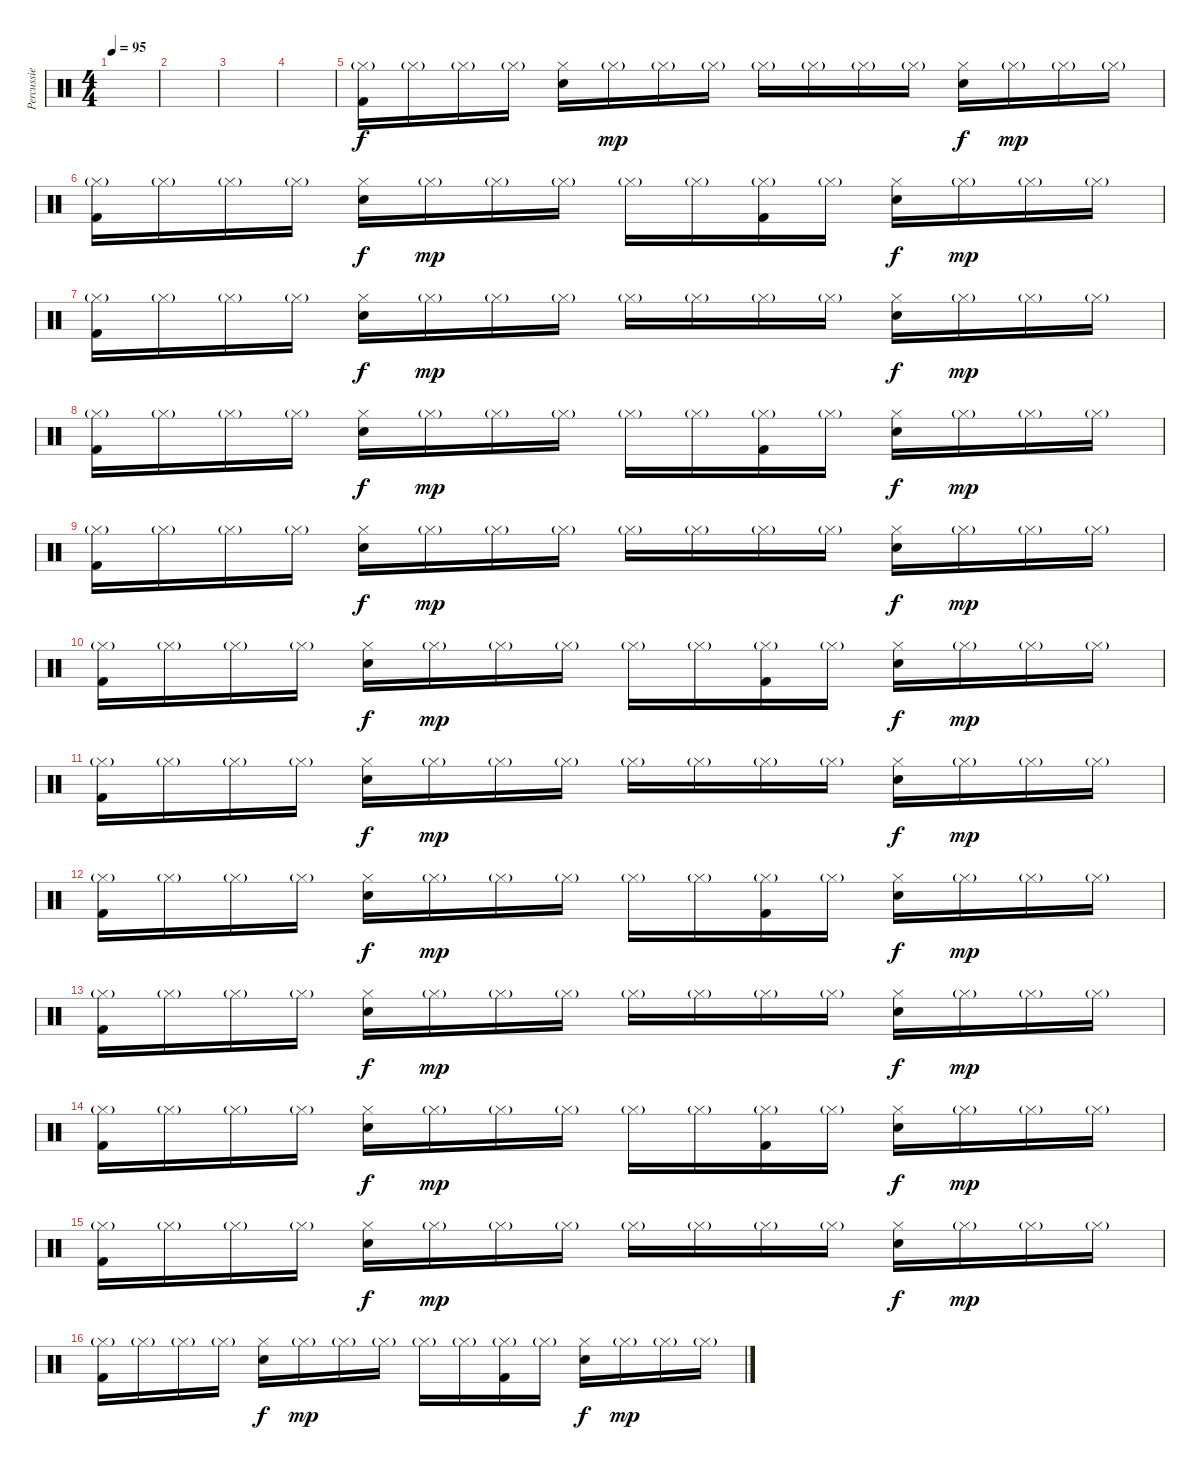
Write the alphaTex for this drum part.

\track ("Percussie" "Percussie") {instrument percussion}
\staff {score}
\articulation defaults
\ts (4 4)
\tempo 95
\clef neutral
\ks c
|
|
|
|
("Hi-Hat (closed)"{g} "Kick (hit) 2").16 "Hi-Hat (closed)"{g}.16 "Hi-Hat (closed)"{g}.16 "Hi-Hat (closed)"{g}.16 ("Hi-Hat (closed)" "Snare (hit) 2").16{dy f} "Hi-Hat (closed)"{g}.16{dy mp} "Hi-Hat (closed)"{g}.16 "Hi-Hat (closed)"{g}.16 "Hi-Hat (closed)"{g}.16 "Hi-Hat (closed)"{g}.16 "Hi-Hat (closed)"{g}.16 "Hi-Hat (closed)"{g}.16 ("Hi-Hat (closed)" "Snare (hit) 2").16{dy f} "Hi-Hat (closed)"{g}.16{dy mp} "Hi-Hat (closed)"{g}.16 "Hi-Hat (closed)"{g}.16 |
("Hi-Hat (closed)"{g} "Kick (hit) 2").16 "Hi-Hat (closed)"{g}.16 "Hi-Hat (closed)"{g}.16 "Hi-Hat (closed)"{g}.16 ("Hi-Hat (closed)" "Snare (hit) 2").16{dy f} "Hi-Hat (closed)"{g}.16{dy mp} "Hi-Hat (closed)"{g}.16 "Hi-Hat (closed)"{g}.16 "Hi-Hat (closed)"{g}.16 "Hi-Hat (closed)"{g}.16 ("Hi-Hat (closed)"{g} "Kick (hit) 2").16 "Hi-Hat (closed)"{g}.16 ("Hi-Hat (closed)" "Snare (hit) 2").16{dy f} "Hi-Hat (closed)"{g}.16{dy mp} "Hi-Hat (closed)"{g}.16 "Hi-Hat (closed)"{g}.16 |
("Hi-Hat (closed)"{g} "Kick (hit) 2").16 "Hi-Hat (closed)"{g}.16 "Hi-Hat (closed)"{g}.16 "Hi-Hat (closed)"{g}.16 ("Hi-Hat (closed)" "Snare (hit) 2").16{dy f} "Hi-Hat (closed)"{g}.16{dy mp} "Hi-Hat (closed)"{g}.16 "Hi-Hat (closed)"{g}.16 "Hi-Hat (closed)"{g}.16 "Hi-Hat (closed)"{g}.16 "Hi-Hat (closed)"{g}.16 "Hi-Hat (closed)"{g}.16 ("Hi-Hat (closed)" "Snare (hit) 2").16{dy f} "Hi-Hat (closed)"{g}.16{dy mp} "Hi-Hat (closed)"{g}.16 "Hi-Hat (closed)"{g}.16 |
("Hi-Hat (closed)"{g} "Kick (hit) 2").16 "Hi-Hat (closed)"{g}.16 "Hi-Hat (closed)"{g}.16 "Hi-Hat (closed)"{g}.16 ("Hi-Hat (closed)" "Snare (hit) 2").16{dy f} "Hi-Hat (closed)"{g}.16{dy mp} "Hi-Hat (closed)"{g}.16 "Hi-Hat (closed)"{g}.16 "Hi-Hat (closed)"{g}.16 "Hi-Hat (closed)"{g}.16 ("Hi-Hat (closed)"{g} "Kick (hit) 2").16 "Hi-Hat (closed)"{g}.16 ("Hi-Hat (closed)" "Snare (hit) 2").16{dy f} "Hi-Hat (closed)"{g}.16{dy mp} "Hi-Hat (closed)"{g}.16 "Hi-Hat (closed)"{g}.16 |
("Hi-Hat (closed)"{g} "Kick (hit) 2").16 "Hi-Hat (closed)"{g}.16 "Hi-Hat (closed)"{g}.16 "Hi-Hat (closed)"{g}.16 ("Hi-Hat (closed)" "Snare (hit) 2").16{dy f} "Hi-Hat (closed)"{g}.16{dy mp} "Hi-Hat (closed)"{g}.16 "Hi-Hat (closed)"{g}.16 "Hi-Hat (closed)"{g}.16 "Hi-Hat (closed)"{g}.16 "Hi-Hat (closed)"{g}.16 "Hi-Hat (closed)"{g}.16 ("Hi-Hat (closed)" "Snare (hit) 2").16{dy f} "Hi-Hat (closed)"{g}.16{dy mp} "Hi-Hat (closed)"{g}.16 "Hi-Hat (closed)"{g}.16 |
("Hi-Hat (closed)"{g} "Kick (hit) 2").16 "Hi-Hat (closed)"{g}.16 "Hi-Hat (closed)"{g}.16 "Hi-Hat (closed)"{g}.16 ("Hi-Hat (closed)" "Snare (hit) 2").16{dy f} "Hi-Hat (closed)"{g}.16{dy mp} "Hi-Hat (closed)"{g}.16 "Hi-Hat (closed)"{g}.16 "Hi-Hat (closed)"{g}.16 "Hi-Hat (closed)"{g}.16 ("Hi-Hat (closed)"{g} "Kick (hit) 2").16 "Hi-Hat (closed)"{g}.16 ("Hi-Hat (closed)" "Snare (hit) 2").16{dy f} "Hi-Hat (closed)"{g}.16{dy mp} "Hi-Hat (closed)"{g}.16 "Hi-Hat (closed)"{g}.16 |
("Hi-Hat (closed)"{g} "Kick (hit) 2").16 "Hi-Hat (closed)"{g}.16 "Hi-Hat (closed)"{g}.16 "Hi-Hat (closed)"{g}.16 ("Hi-Hat (closed)" "Snare (hit) 2").16{dy f} "Hi-Hat (closed)"{g}.16{dy mp} "Hi-Hat (closed)"{g}.16 "Hi-Hat (closed)"{g}.16 "Hi-Hat (closed)"{g}.16 "Hi-Hat (closed)"{g}.16 "Hi-Hat (closed)"{g}.16 "Hi-Hat (closed)"{g}.16 ("Hi-Hat (closed)" "Snare (hit) 2").16{dy f} "Hi-Hat (closed)"{g}.16{dy mp} "Hi-Hat (closed)"{g}.16 "Hi-Hat (closed)"{g}.16 |
("Hi-Hat (closed)"{g} "Kick (hit) 2").16 "Hi-Hat (closed)"{g}.16 "Hi-Hat (closed)"{g}.16 "Hi-Hat (closed)"{g}.16 ("Hi-Hat (closed)" "Snare (hit) 2").16{dy f} "Hi-Hat (closed)"{g}.16{dy mp} "Hi-Hat (closed)"{g}.16 "Hi-Hat (closed)"{g}.16 "Hi-Hat (closed)"{g}.16 "Hi-Hat (closed)"{g}.16 ("Hi-Hat (closed)"{g} "Kick (hit) 2").16 "Hi-Hat (closed)"{g}.16 ("Hi-Hat (closed)" "Snare (hit) 2").16{dy f} "Hi-Hat (closed)"{g}.16{dy mp} "Hi-Hat (closed)"{g}.16 "Hi-Hat (closed)"{g}.16 |
("Hi-Hat (closed)"{g} "Kick (hit) 2").16 "Hi-Hat (closed)"{g}.16 "Hi-Hat (closed)"{g}.16 "Hi-Hat (closed)"{g}.16 ("Hi-Hat (closed)" "Snare (hit) 2").16{dy f} "Hi-Hat (closed)"{g}.16{dy mp} "Hi-Hat (closed)"{g}.16 "Hi-Hat (closed)"{g}.16 "Hi-Hat (closed)"{g}.16 "Hi-Hat (closed)"{g}.16 "Hi-Hat (closed)"{g}.16 "Hi-Hat (closed)"{g}.16 ("Hi-Hat (closed)" "Snare (hit) 2").16{dy f} "Hi-Hat (closed)"{g}.16{dy mp} "Hi-Hat (closed)"{g}.16 "Hi-Hat (closed)"{g}.16 |
("Hi-Hat (closed)"{g} "Kick (hit) 2").16 "Hi-Hat (closed)"{g}.16 "Hi-Hat (closed)"{g}.16 "Hi-Hat (closed)"{g}.16 ("Hi-Hat (closed)" "Snare (hit) 2").16{dy f} "Hi-Hat (closed)"{g}.16{dy mp} "Hi-Hat (closed)"{g}.16 "Hi-Hat (closed)"{g}.16 "Hi-Hat (closed)"{g}.16 "Hi-Hat (closed)"{g}.16 ("Hi-Hat (closed)"{g} "Kick (hit) 2").16 "Hi-Hat (closed)"{g}.16 ("Hi-Hat (closed)" "Snare (hit) 2").16{dy f} "Hi-Hat (closed)"{g}.16{dy mp} "Hi-Hat (closed)"{g}.16 "Hi-Hat (closed)"{g}.16 |
("Hi-Hat (closed)"{g} "Kick (hit) 2").16 "Hi-Hat (closed)"{g}.16 "Hi-Hat (closed)"{g}.16 "Hi-Hat (closed)"{g}.16 ("Hi-Hat (closed)" "Snare (hit) 2").16{dy f} "Hi-Hat (closed)"{g}.16{dy mp} "Hi-Hat (closed)"{g}.16 "Hi-Hat (closed)"{g}.16 "Hi-Hat (closed)"{g}.16 "Hi-Hat (closed)"{g}.16 "Hi-Hat (closed)"{g}.16 "Hi-Hat (closed)"{g}.16 ("Hi-Hat (closed)" "Snare (hit) 2").16{dy f} "Hi-Hat (closed)"{g}.16{dy mp} "Hi-Hat (closed)"{g}.16 "Hi-Hat (closed)"{g}.16 |
("Hi-Hat (closed)"{g} "Kick (hit) 2").16 "Hi-Hat (closed)"{g}.16 "Hi-Hat (closed)"{g}.16 "Hi-Hat (closed)"{g}.16 ("Hi-Hat (closed)" "Snare (hit) 2").16{dy f} "Hi-Hat (closed)"{g}.16{dy mp} "Hi-Hat (closed)"{g}.16 "Hi-Hat (closed)"{g}.16 "Hi-Hat (closed)"{g}.16 "Hi-Hat (closed)"{g}.16 ("Hi-Hat (closed)"{g} "Kick (hit) 2").16 "Hi-Hat (closed)"{g}.16 ("Hi-Hat (closed)" "Snare (hit) 2").16{dy f} "Hi-Hat (closed)"{g}.16{dy mp} "Hi-Hat (closed)"{g}.16 "Hi-Hat (closed)"{g}.16
